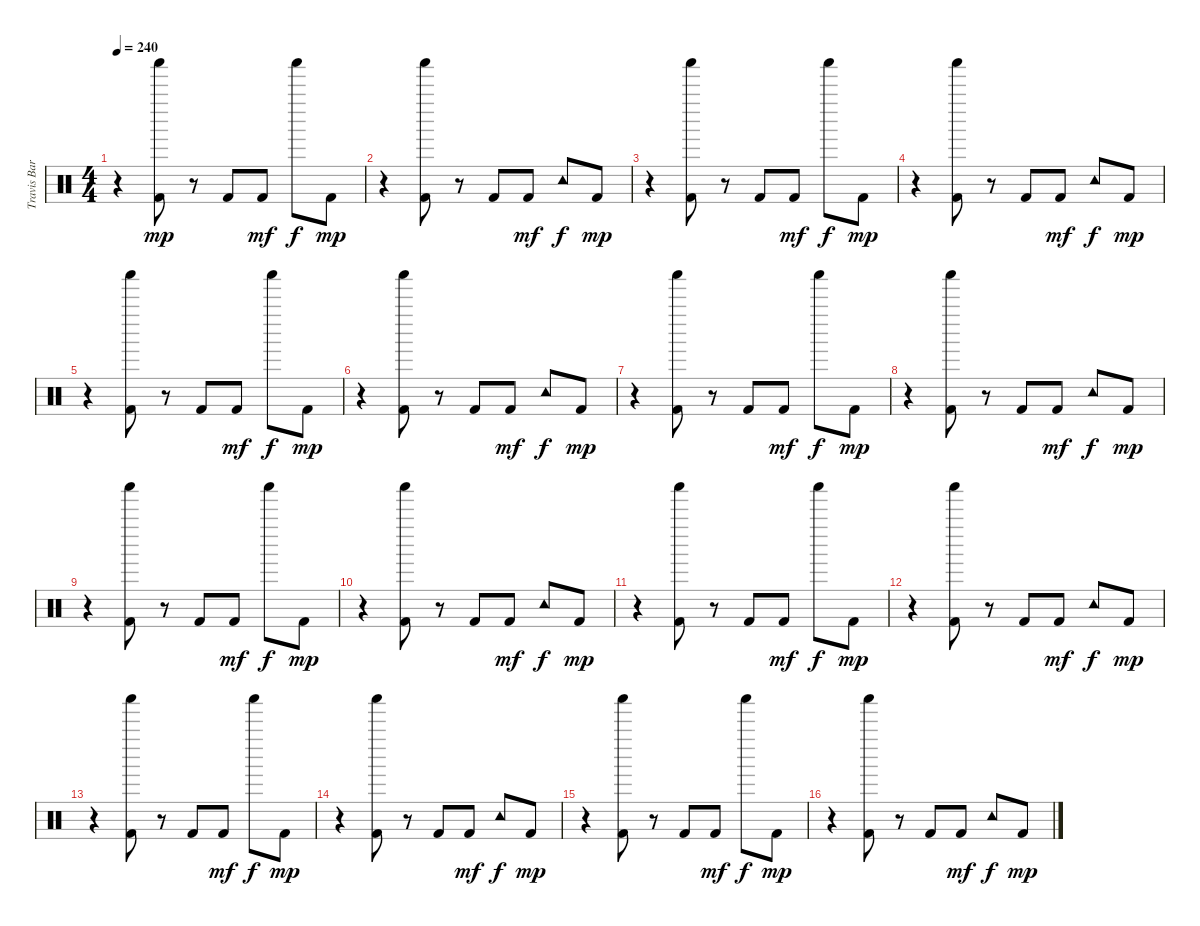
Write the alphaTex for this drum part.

\track ("Travis Barker - Drums" "Travis Bar") {instrument percussion}
\staff {score}
\articulation defaults
\ts (4 4)
\tempo 240
\clef neutral
\ks c
r.4{dy mp} ("Shaker (hit)" "Kick (hit) 2").8 r.8 "Kick (hit) 2".8 "Kick (hit) 2".8{dy mf} "Shaker (hit)".8{dy f} "Kick (hit) 2".8{dy mp} |
r.4 ("Shaker (hit)" "Kick (hit) 2").8 r.8 "Kick (hit) 2".8 "Kick (hit) 2".8{dy mf} "Tambourine (hit)".8{dy f} "Kick (hit) 2".8{dy mp} |
r.4 ("Shaker (hit)" "Kick (hit) 2").8 r.8 "Kick (hit) 2".8 "Kick (hit) 2".8{dy mf} "Shaker (hit)".8{dy f} "Kick (hit) 2".8{dy mp} |
r.4 ("Shaker (hit)" "Kick (hit) 2").8 r.8 "Kick (hit) 2".8 "Kick (hit) 2".8{dy mf} "Tambourine (hit)".8{dy f} "Kick (hit) 2".8{dy mp} |
r.4 ("Shaker (hit)" "Kick (hit) 2").8 r.8 "Kick (hit) 2".8 "Kick (hit) 2".8{dy mf} "Shaker (hit)".8{dy f} "Kick (hit) 2".8{dy mp} |
r.4 ("Shaker (hit)" "Kick (hit) 2").8 r.8 "Kick (hit) 2".8 "Kick (hit) 2".8{dy mf} "Tambourine (hit)".8{dy f} "Kick (hit) 2".8{dy mp} |
r.4 ("Shaker (hit)" "Kick (hit) 2").8 r.8 "Kick (hit) 2".8 "Kick (hit) 2".8{dy mf} "Shaker (hit)".8{dy f} "Kick (hit) 2".8{dy mp} |
r.4 ("Shaker (hit)" "Kick (hit) 2").8 r.8 "Kick (hit) 2".8 "Kick (hit) 2".8{dy mf} "Tambourine (hit)".8{dy f} "Kick (hit) 2".8{dy mp} |
r.4 ("Shaker (hit)" "Kick (hit) 2").8 r.8 "Kick (hit) 2".8 "Kick (hit) 2".8{dy mf} "Shaker (hit)".8{dy f} "Kick (hit) 2".8{dy mp} |
r.4 ("Shaker (hit)" "Kick (hit) 2").8 r.8 "Kick (hit) 2".8 "Kick (hit) 2".8{dy mf} "Tambourine (hit)".8{dy f} "Kick (hit) 2".8{dy mp} |
r.4 ("Shaker (hit)" "Kick (hit) 2").8 r.8 "Kick (hit) 2".8 "Kick (hit) 2".8{dy mf} "Shaker (hit)".8{dy f} "Kick (hit) 2".8{dy mp} |
r.4 ("Shaker (hit)" "Kick (hit) 2").8 r.8 "Kick (hit) 2".8 "Kick (hit) 2".8{dy mf} "Tambourine (hit)".8{dy f} "Kick (hit) 2".8{dy mp} |
r.4 ("Shaker (hit)" "Kick (hit) 2").8 r.8 "Kick (hit) 2".8 "Kick (hit) 2".8{dy mf} "Shaker (hit)".8{dy f} "Kick (hit) 2".8{dy mp} |
r.4 ("Shaker (hit)" "Kick (hit) 2").8 r.8 "Kick (hit) 2".8 "Kick (hit) 2".8{dy mf} "Tambourine (hit)".8{dy f} "Kick (hit) 2".8{dy mp} |
r.4 ("Shaker (hit)" "Kick (hit) 2").8 r.8 "Kick (hit) 2".8 "Kick (hit) 2".8{dy mf} "Shaker (hit)".8{dy f} "Kick (hit) 2".8{dy mp} |
r.4 ("Shaker (hit)" "Kick (hit) 2").8 r.8 "Kick (hit) 2".8 "Kick (hit) 2".8{dy mf} "Tambourine (hit)".8{dy f} "Kick (hit) 2".8{dy mp}
